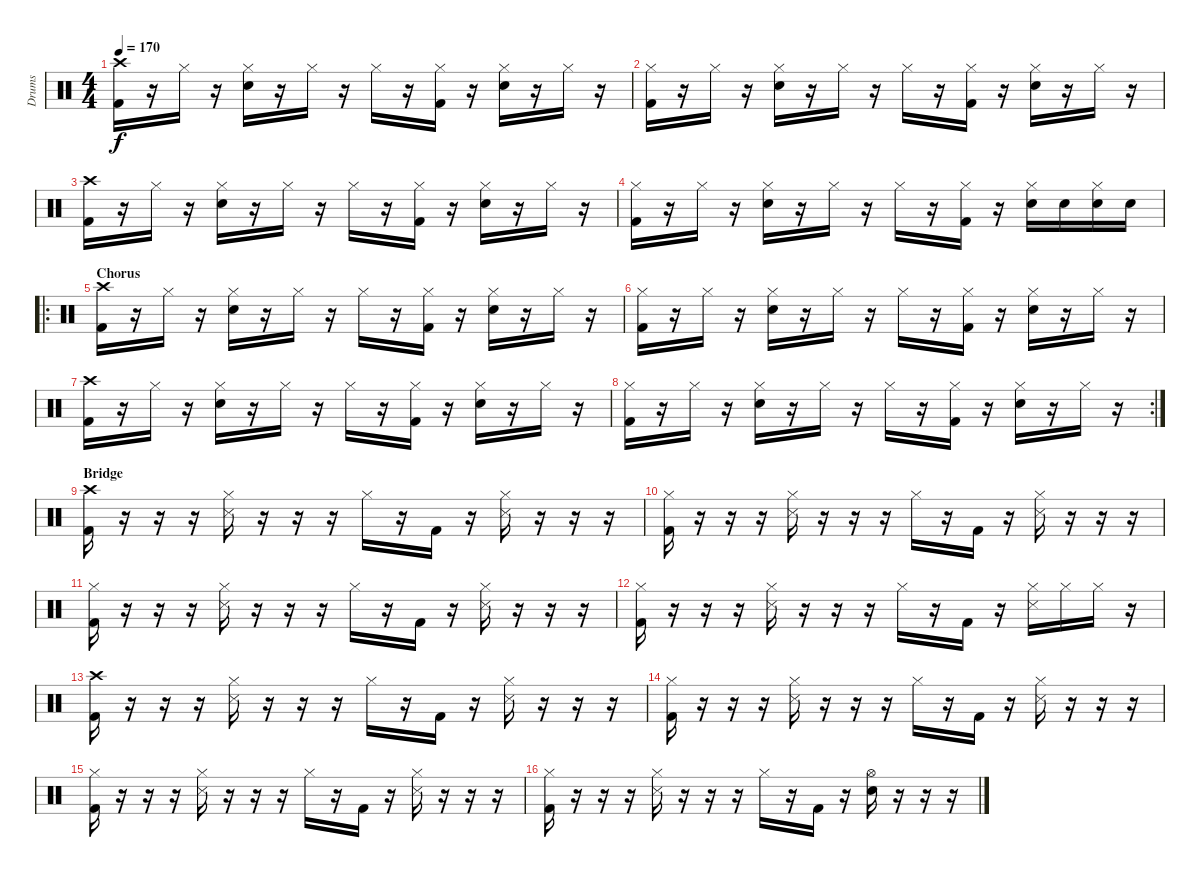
\track ("Drums" "Drums") {instrument percussion}
\staff {score}
\articulation defaults
\ts (4 4)
\tempo 170
\clef neutral
\ks c
("Kick (hit) 2" "Crash high (hit)").16{dy f} r.16 "Hi-Hat (closed)".16 r.16 ("Hi-Hat (closed)" "Snare (hit) 2").16 r.16 "Hi-Hat (closed)".16 r.16 "Hi-Hat (closed)".16 r.16 ("Hi-Hat (closed)" "Kick (hit) 2").16 r.16 ("Hi-Hat (closed)" "Snare (hit) 2").16 r.16 "Hi-Hat (closed)".16 r.16 |
("Kick (hit) 2" "Hi-Hat (closed)").16 r.16 "Hi-Hat (closed)".16 r.16 ("Hi-Hat (closed)" "Snare (hit) 2").16 r.16 "Hi-Hat (closed)".16 r.16 "Hi-Hat (closed)".16 r.16 ("Hi-Hat (closed)" "Kick (hit) 2").16 r.16 ("Hi-Hat (closed)" "Snare (hit) 2").16 r.16 "Hi-Hat (closed)".16 r.16 |
("Kick (hit) 2" "Crash high (hit)").16 r.16 "Hi-Hat (closed)".16 r.16 ("Hi-Hat (closed)" "Snare (hit) 2").16 r.16 "Hi-Hat (closed)".16 r.16 "Hi-Hat (closed)".16 r.16 ("Hi-Hat (closed)" "Kick (hit) 2").16 r.16 ("Hi-Hat (closed)" "Snare (hit) 2").16 r.16 "Hi-Hat (closed)".16 r.16 |
("Kick (hit) 2" "Hi-Hat (closed)").16 r.16 "Hi-Hat (closed)".16 r.16 ("Hi-Hat (closed)" "Snare (hit) 2").16 r.16 "Hi-Hat (closed)".16 r.16 "Hi-Hat (closed)".16 r.16 ("Hi-Hat (closed)" "Kick (hit) 2").16 r.16 ("Hi-Hat (closed)" "Snare (hit) 2").16 "Snare (hit) 2".16 ("Hi-Hat (closed)" "Snare (hit) 2").16 "Snare (hit) 2".16 |
\ro
\section ("" "Chorus")
("Kick (hit) 2" "Crash high (hit)").16 r.16 "Hi-Hat (closed)".16 r.16 ("Hi-Hat (closed)" "Snare (hit) 2").16 r.16 "Hi-Hat (closed)".16 r.16 "Hi-Hat (closed)".16 r.16 ("Hi-Hat (closed)" "Kick (hit) 2").16 r.16 ("Hi-Hat (closed)" "Snare (hit) 2").16 r.16 "Hi-Hat (closed)".16 r.16 |
("Kick (hit) 2" "Hi-Hat (closed)").16 r.16 "Hi-Hat (closed)".16 r.16 ("Hi-Hat (closed)" "Snare (hit) 2").16 r.16 "Hi-Hat (closed)".16 r.16 "Hi-Hat (closed)".16 r.16 ("Hi-Hat (closed)" "Kick (hit) 2").16 r.16 ("Hi-Hat (closed)" "Snare (hit) 2").16 r.16 "Hi-Hat (closed)".16 r.16 |
("Kick (hit) 2" "Crash high (hit)").16 r.16 "Hi-Hat (closed)".16 r.16 ("Hi-Hat (closed)" "Snare (hit) 2").16 r.16 "Hi-Hat (closed)".16 r.16 "Hi-Hat (closed)".16 r.16 ("Hi-Hat (closed)" "Kick (hit) 2").16 r.16 ("Hi-Hat (closed)" "Snare (hit) 2").16 r.16 "Hi-Hat (closed)".16 r.16 |
\rc 2
("Kick (hit) 2" "Hi-Hat (closed)").16 r.16 "Hi-Hat (closed)".16 r.16 ("Hi-Hat (closed)" "Snare (hit) 2").16 r.16 "Hi-Hat (closed)".16 r.16 "Hi-Hat (closed)".16 r.16 ("Hi-Hat (closed)" "Kick (hit) 2").16 r.16 ("Hi-Hat (closed)" "Snare (hit) 2").16 r.16 "Hi-Hat (closed)".16 r.16 |
\section ("" "Bridge")
("Kick (hit) 2" "Crash high (hit)").16 r.16 r.16 r.16 ("Hi-Hat (closed)" "Snare (side stick) 3").16 r.16 r.16 r.16 "Hi-Hat (closed)".16 r.16 "Kick (hit) 2".16 r.16 ("Hi-Hat (closed)" "Snare (side stick) 3").16 r.16 r.16 r.16 |
("Kick (hit) 2" "Hi-Hat (closed)").16 r.16 r.16 r.16 ("Hi-Hat (closed)" "Snare (side stick) 3").16 r.16 r.16 r.16 "Hi-Hat (closed)".16 r.16 "Kick (hit) 2".16 r.16 ("Hi-Hat (closed)" "Snare (side stick) 3").16 r.16 r.16 r.16 |
("Kick (hit) 2" "Hi-Hat (closed)").16 r.16 r.16 r.16 ("Hi-Hat (closed)" "Snare (side stick) 3").16 r.16 r.16 r.16 "Hi-Hat (closed)".16 r.16 "Kick (hit) 2".16 r.16 ("Hi-Hat (closed)" "Snare (side stick) 3").16 r.16 r.16 r.16 |
("Kick (hit) 2" "Hi-Hat (closed)").16 r.16 r.16 r.16 ("Hi-Hat (closed)" "Snare (side stick) 3").16 r.16 r.16 r.16 "Hi-Hat (closed)".16 r.16 "Kick (hit) 2".16 r.16 ("Hi-Hat (closed)" "Snare (side stick) 3").16 "Hi-Hat (closed)".16 "Hi-Hat (closed)".16 r.16 |
("Kick (hit) 2" "Crash high (hit)").16 r.16 r.16 r.16 ("Hi-Hat (closed)" "Snare (side stick) 3").16 r.16 r.16 r.16 "Hi-Hat (closed)".16 r.16 "Kick (hit) 2".16 r.16 ("Hi-Hat (closed)" "Snare (side stick) 3").16 r.16 r.16 r.16 |
("Kick (hit) 2" "Hi-Hat (closed)").16 r.16 r.16 r.16 ("Hi-Hat (closed)" "Snare (side stick) 3").16 r.16 r.16 r.16 "Hi-Hat (closed)".16 r.16 "Kick (hit) 2".16 r.16 ("Hi-Hat (closed)" "Snare (side stick) 3").16 r.16 r.16 r.16 |
("Kick (hit) 2" "Hi-Hat (closed)").16 r.16 r.16 r.16 ("Hi-Hat (closed)" "Snare (side stick) 3").16 r.16 r.16 r.16 "Hi-Hat (closed)".16 r.16 "Kick (hit) 2".16 r.16 ("Hi-Hat (closed)" "Snare (side stick) 3").16 r.16 r.16 r.16 |
("Kick (hit) 2" "Hi-Hat (closed)").16 r.16 r.16 r.16 ("Hi-Hat (closed)" "Snare (side stick) 3").16 r.16 r.16 r.16 "Hi-Hat (closed)".16 r.16 "Kick (hit) 2".16 r.16 ("Hi-Hat (open)" "Snare (hit) 2").16 r.16 r.16 r.16
